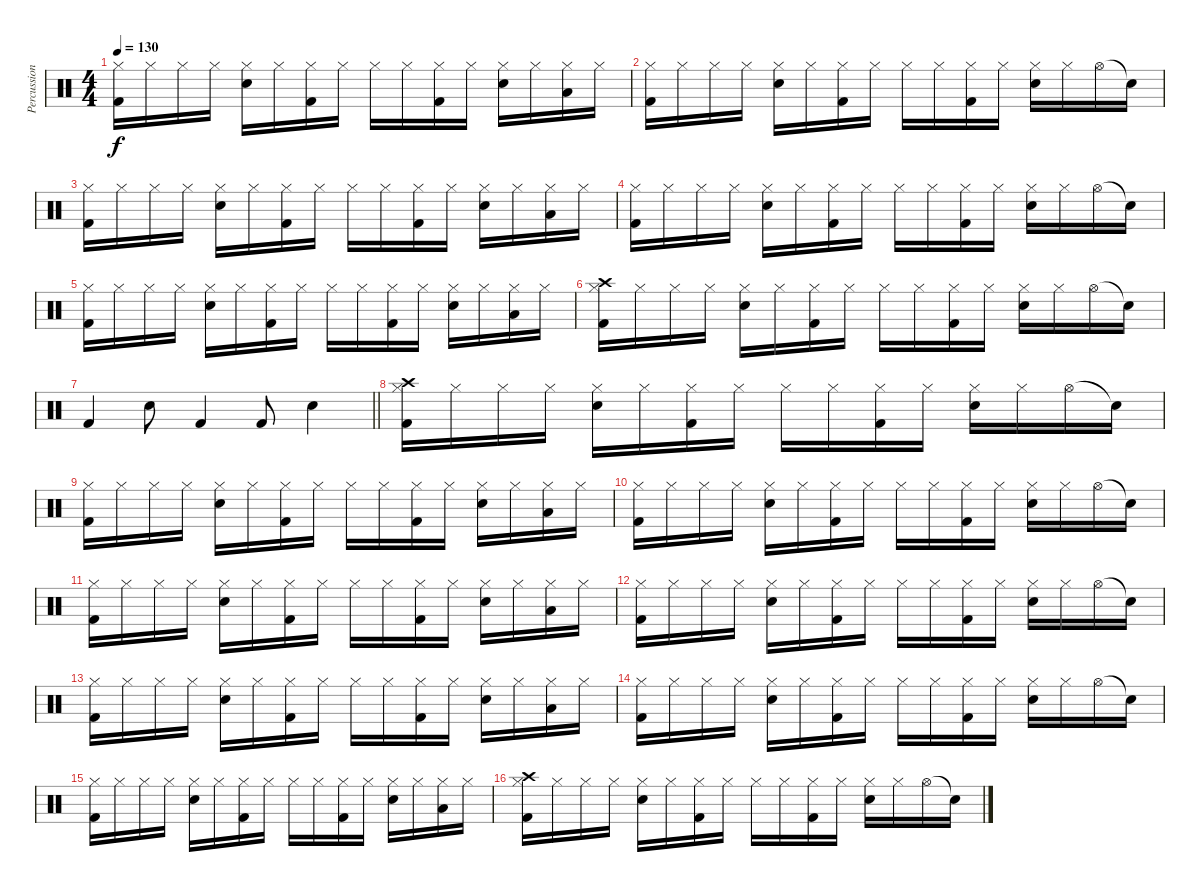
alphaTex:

\track ("Percussion" "Percussion") {instrument percussion}
\staff {score}
\articulation defaults
\ts (4 4)
\tempo 130
\clef neutral
\ks c
("Hi-Hat (closed)" "Kick (hit) 2").16{dy f} "Hi-Hat (closed)".16 "Hi-Hat (closed)".16 "Hi-Hat (closed)".16 ("Hi-Hat (closed)" "Snare (hit) 2").16 "Hi-Hat (closed)".16 ("Hi-Hat (closed)" "Kick (hit) 2").16 "Hi-Hat (closed)".16 "Hi-Hat (closed)".16 "Hi-Hat (closed)".16 ("Hi-Hat (closed)" "Kick (hit) 2").16 "Hi-Hat (closed)".16 ("Hi-Hat (closed)" "Snare (hit) 2").16 "Hi-Hat (closed)".16 ("Hi-Hat (closed)" "Low Tom (hit)").16 "Hi-Hat (closed)".16 |
("Hi-Hat (closed)" "Kick (hit) 2").16 "Hi-Hat (closed)".16 "Hi-Hat (closed)".16 "Hi-Hat (closed)".16 ("Hi-Hat (closed)" "Snare (hit) 2").16 "Hi-Hat (closed)".16 ("Hi-Hat (closed)" "Kick (hit) 2").16 "Hi-Hat (closed)".16 "Hi-Hat (closed)".16 "Hi-Hat (closed)".16 ("Hi-Hat (closed)" "Kick (hit) 2").16 "Hi-Hat (closed)".16 ("Hi-Hat (closed)" "Snare (hit) 2").16 "Hi-Hat (closed)".16 "Hi-Hat (open)".16 "Snare (hit)"{t}.16 |
("Hi-Hat (closed)" "Kick (hit) 2").16 "Hi-Hat (closed)".16 "Hi-Hat (closed)".16 "Hi-Hat (closed)".16 ("Hi-Hat (closed)" "Snare (hit) 2").16 "Hi-Hat (closed)".16 ("Hi-Hat (closed)" "Kick (hit) 2").16 "Hi-Hat (closed)".16 "Hi-Hat (closed)".16 "Hi-Hat (closed)".16 ("Hi-Hat (closed)" "Kick (hit) 2").16 "Hi-Hat (closed)".16 ("Hi-Hat (closed)" "Snare (hit) 2").16 "Hi-Hat (closed)".16 ("Hi-Hat (closed)" "Low Tom (hit)").16 "Hi-Hat (closed)".16 |
("Hi-Hat (closed)" "Kick (hit) 2").16 "Hi-Hat (closed)".16 "Hi-Hat (closed)".16 "Hi-Hat (closed)".16 ("Hi-Hat (closed)" "Snare (hit) 2").16 "Hi-Hat (closed)".16 ("Hi-Hat (closed)" "Kick (hit) 2").16 "Hi-Hat (closed)".16 "Hi-Hat (closed)".16 "Hi-Hat (closed)".16 ("Hi-Hat (closed)" "Kick (hit) 2").16 "Hi-Hat (closed)".16 ("Hi-Hat (closed)" "Snare (hit) 2").16 "Hi-Hat (closed)".16 "Hi-Hat (open)".16 "Snare (hit)"{t}.16 |
("Hi-Hat (closed)" "Kick (hit) 2").16 "Hi-Hat (closed)".16 "Hi-Hat (closed)".16 "Hi-Hat (closed)".16 ("Hi-Hat (closed)" "Snare (hit) 2").16 "Hi-Hat (closed)".16 ("Hi-Hat (closed)" "Kick (hit) 2").16 "Hi-Hat (closed)".16 "Hi-Hat (closed)".16 "Hi-Hat (closed)".16 ("Hi-Hat (closed)" "Kick (hit) 2").16 "Hi-Hat (closed)".16 ("Hi-Hat (closed)" "Snare (hit) 2").16 "Hi-Hat (closed)".16 ("Hi-Hat (closed)" "Low Tom (hit)").16 "Hi-Hat (closed)".16 |
("Hi-Hat (closed)" "Crash high (hit)" "Kick (hit) 2").16 "Hi-Hat (closed)".16 "Hi-Hat (closed)".16 "Hi-Hat (closed)".16 ("Hi-Hat (closed)" "Snare (hit) 2").16 "Hi-Hat (closed)".16 ("Hi-Hat (closed)" "Kick (hit) 2").16 "Hi-Hat (closed)".16 "Hi-Hat (closed)".16 "Hi-Hat (closed)".16 ("Hi-Hat (closed)" "Kick (hit) 2").16 "Hi-Hat (closed)".16 ("Hi-Hat (closed)" "Snare (hit) 2").16 "Hi-Hat (closed)".16 "Hi-Hat (open)".16 "Snare (hit)"{t}.16 |
\barLineRight lightlight "Kick (hit) 2".4 "Hand Clap (hit)".8 "Kick (hit) 2".4 "Kick (hit) 2".8 "Hand Clap (hit)".4
|
("Hi-Hat (closed)" "Crash high (hit)" "Kick (hit) 2").16 "Hi-Hat (closed)".16 "Hi-Hat (closed)".16 "Hi-Hat (closed)".16 ("Hi-Hat (closed)" "Snare (hit) 2").16 "Hi-Hat (closed)".16 ("Hi-Hat (closed)" "Kick (hit) 2").16 "Hi-Hat (closed)".16 "Hi-Hat (closed)".16 "Hi-Hat (closed)".16 ("Hi-Hat (closed)" "Kick (hit) 2").16 "Hi-Hat (closed)".16 ("Hi-Hat (closed)" "Snare (hit) 2").16 "Hi-Hat (closed)".16 "Hi-Hat (open)".16 "Snare (hit)"{t}.16 |
("Hi-Hat (closed)" "Kick (hit) 2").16 "Hi-Hat (closed)".16 "Hi-Hat (closed)".16 "Hi-Hat (closed)".16 ("Hi-Hat (closed)" "Snare (hit) 2").16 "Hi-Hat (closed)".16 ("Hi-Hat (closed)" "Kick (hit) 2").16 "Hi-Hat (closed)".16 "Hi-Hat (closed)".16 "Hi-Hat (closed)".16 ("Hi-Hat (closed)" "Kick (hit) 2").16 "Hi-Hat (closed)".16 ("Hi-Hat (closed)" "Snare (hit) 2").16 "Hi-Hat (closed)".16 ("Hi-Hat (closed)" "Low Tom (hit)").16 "Hi-Hat (closed)".16 |
("Hi-Hat (closed)" "Kick (hit) 2").16 "Hi-Hat (closed)".16 "Hi-Hat (closed)".16 "Hi-Hat (closed)".16 ("Hi-Hat (closed)" "Snare (hit) 2").16 "Hi-Hat (closed)".16 ("Hi-Hat (closed)" "Kick (hit) 2").16 "Hi-Hat (closed)".16 "Hi-Hat (closed)".16 "Hi-Hat (closed)".16 ("Hi-Hat (closed)" "Kick (hit) 2").16 "Hi-Hat (closed)".16 ("Hi-Hat (closed)" "Snare (hit) 2").16 "Hi-Hat (closed)".16 "Hi-Hat (open)".16 "Snare (hit)"{t}.16 |
("Hi-Hat (closed)" "Kick (hit) 2").16 "Hi-Hat (closed)".16 "Hi-Hat (closed)".16 "Hi-Hat (closed)".16 ("Hi-Hat (closed)" "Snare (hit) 2").16 "Hi-Hat (closed)".16 ("Hi-Hat (closed)" "Kick (hit) 2").16 "Hi-Hat (closed)".16 "Hi-Hat (closed)".16 "Hi-Hat (closed)".16 ("Hi-Hat (closed)" "Kick (hit) 2").16 "Hi-Hat (closed)".16 ("Hi-Hat (closed)" "Snare (hit) 2").16 "Hi-Hat (closed)".16 ("Hi-Hat (closed)" "Low Tom (hit)").16 "Hi-Hat (closed)".16 |
("Hi-Hat (closed)" "Kick (hit) 2").16 "Hi-Hat (closed)".16 "Hi-Hat (closed)".16 "Hi-Hat (closed)".16 ("Hi-Hat (closed)" "Snare (hit) 2").16 "Hi-Hat (closed)".16 ("Hi-Hat (closed)" "Kick (hit) 2").16 "Hi-Hat (closed)".16 "Hi-Hat (closed)".16 "Hi-Hat (closed)".16 ("Hi-Hat (closed)" "Kick (hit) 2").16 "Hi-Hat (closed)".16 ("Hi-Hat (closed)" "Snare (hit) 2").16 "Hi-Hat (closed)".16 "Hi-Hat (open)".16 "Snare (hit)"{t}.16 |
("Hi-Hat (closed)" "Kick (hit) 2").16 "Hi-Hat (closed)".16 "Hi-Hat (closed)".16 "Hi-Hat (closed)".16 ("Hi-Hat (closed)" "Snare (hit) 2").16 "Hi-Hat (closed)".16 ("Hi-Hat (closed)" "Kick (hit) 2").16 "Hi-Hat (closed)".16 "Hi-Hat (closed)".16 "Hi-Hat (closed)".16 ("Hi-Hat (closed)" "Kick (hit) 2").16 "Hi-Hat (closed)".16 ("Hi-Hat (closed)" "Snare (hit) 2").16 "Hi-Hat (closed)".16 ("Hi-Hat (closed)" "Low Tom (hit)").16 "Hi-Hat (closed)".16 |
("Hi-Hat (closed)" "Kick (hit) 2").16 "Hi-Hat (closed)".16 "Hi-Hat (closed)".16 "Hi-Hat (closed)".16 ("Hi-Hat (closed)" "Snare (hit) 2").16 "Hi-Hat (closed)".16 ("Hi-Hat (closed)" "Kick (hit) 2").16 "Hi-Hat (closed)".16 "Hi-Hat (closed)".16 "Hi-Hat (closed)".16 ("Hi-Hat (closed)" "Kick (hit) 2").16 "Hi-Hat (closed)".16 ("Hi-Hat (closed)" "Snare (hit) 2").16 "Hi-Hat (closed)".16 "Hi-Hat (open)".16 "Snare (hit)"{t}.16 |
("Hi-Hat (closed)" "Kick (hit) 2").16 "Hi-Hat (closed)".16 "Hi-Hat (closed)".16 "Hi-Hat (closed)".16 ("Hi-Hat (closed)" "Snare (hit) 2").16 "Hi-Hat (closed)".16 ("Hi-Hat (closed)" "Kick (hit) 2").16 "Hi-Hat (closed)".16 "Hi-Hat (closed)".16 "Hi-Hat (closed)".16 ("Hi-Hat (closed)" "Kick (hit) 2").16 "Hi-Hat (closed)".16 ("Hi-Hat (closed)" "Snare (hit) 2").16 "Hi-Hat (closed)".16 ("Hi-Hat (closed)" "Low Tom (hit)").16 "Hi-Hat (closed)".16 |
("Hi-Hat (closed)" "Crash high (hit)" "Kick (hit) 2").16 "Hi-Hat (closed)".16 "Hi-Hat (closed)".16 "Hi-Hat (closed)".16 ("Hi-Hat (closed)" "Snare (hit) 2").16 "Hi-Hat (closed)".16 ("Hi-Hat (closed)" "Kick (hit) 2").16 "Hi-Hat (closed)".16 "Hi-Hat (closed)".16 "Hi-Hat (closed)".16 ("Hi-Hat (closed)" "Kick (hit) 2").16 "Hi-Hat (closed)".16 ("Hi-Hat (closed)" "Snare (hit) 2").16 "Hi-Hat (closed)".16 "Hi-Hat (open)".16 "Snare (hit)"{t}.16
